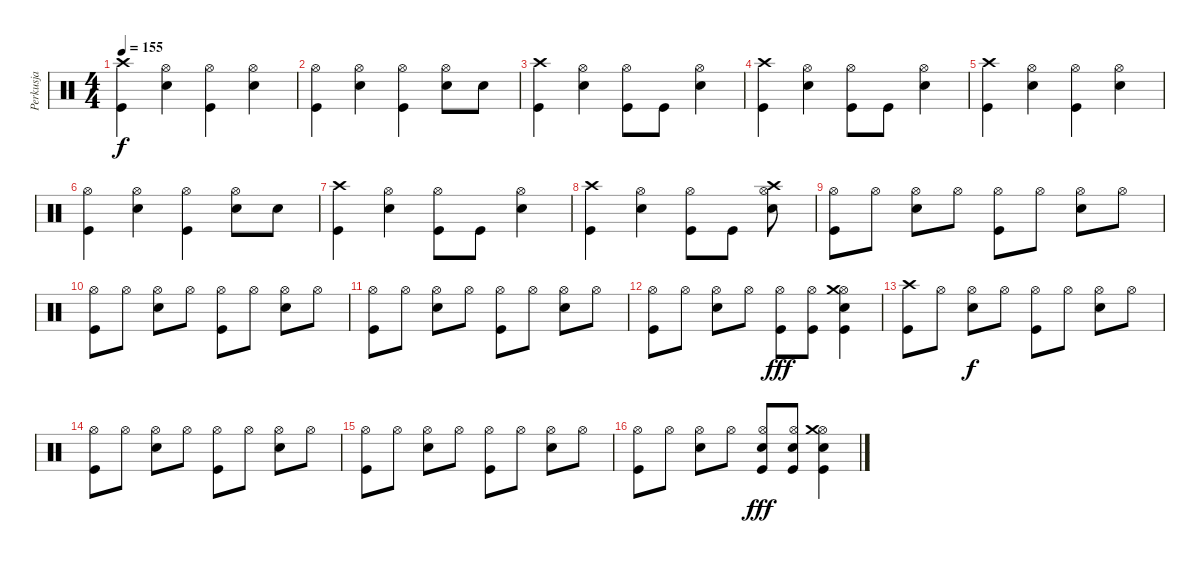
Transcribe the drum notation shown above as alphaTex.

\track ("Perkusja" "Perkusja") {instrument percussion}
\staff {score}
\articulation defaults
\ts (4 4)
\tempo 155
\clef neutral
\ks c
("Crash high (hit)" "Kick (hit)").4{dy f} ("Hi-Hat (open)" "Snare (hit) 2").4 ("Kick (hit)" "Hi-Hat (open)").4 ("Snare (hit) 2" "Hi-Hat (open)").4 |
("Kick (hit)" "Hi-Hat (open)").4 ("Snare (hit) 2" "Hi-Hat (open)").4 ("Kick (hit)" "Hi-Hat (open)").4 ("Snare (hit) 2" "Hi-Hat (open)").8 "Snare (hit) 2".8 |
("Crash high (hit)" "Kick (hit)").4 ("Snare (hit) 2" "Hi-Hat (open)").4 ("Kick (hit)" "Hi-Hat (open)").8 "Kick (hit)".8 ("Hi-Hat (open)" "Snare (hit) 2").4 |
("Crash high (hit)" "Kick (hit)").4 ("Hi-Hat (open)" "Snare (hit) 2").4 ("Kick (hit)" "Hi-Hat (open)").8 "Kick (hit)".8 ("Hi-Hat (open)" "Snare (hit) 2").4 |
("Crash high (hit)" "Kick (hit)").4 ("Hi-Hat (open)" "Snare (hit) 2").4 ("Kick (hit)" "Hi-Hat (open)").4 ("Snare (hit) 2" "Hi-Hat (open)").4 |
("Kick (hit)" "Hi-Hat (open)").4 ("Snare (hit) 2" "Hi-Hat (open)").4 ("Kick (hit)" "Hi-Hat (open)").4 ("Snare (hit) 2" "Hi-Hat (open)").8 "Snare (hit) 2".8 |
("Crash high (hit)" "Kick (hit)").4 ("Snare (hit) 2" "Hi-Hat (open)").4 ("Kick (hit)" "Hi-Hat (open)").8 "Kick (hit)".8 ("Hi-Hat (open)" "Snare (hit) 2").4 |
("Crash high (hit)" "Kick (hit)").4 ("Hi-Hat (open)" "Snare (hit) 2").4 ("Kick (hit)" "Hi-Hat (open)").8 "Kick (hit)".8 ("Hi-Hat (open)" "Snare (hit) 2" "Crash high (hit)").8 |
("Kick (hit)" "Hi-Hat (open)").8 "Hi-Hat (open)".8 ("Hi-Hat (open)" "Snare (hit) 2").8 "Hi-Hat (open)".8 ("Kick (hit)" "Hi-Hat (open)").8 "Hi-Hat (open)".8 ("Hi-Hat (open)" "Snare (hit) 2").8 "Hi-Hat (open)".8 |
("Kick (hit)" "Hi-Hat (open)").8 "Hi-Hat (open)".8 ("Hi-Hat (open)" "Snare (hit) 2").8 "Hi-Hat (open)".8 ("Kick (hit)" "Hi-Hat (open)").8 "Hi-Hat (open)".8 ("Hi-Hat (open)" "Snare (hit) 2").8 "Hi-Hat (open)".8 |
("Kick (hit)" "Hi-Hat (open)").8 "Hi-Hat (open)".8 ("Hi-Hat (open)" "Snare (hit) 2").8 "Hi-Hat (open)".8 ("Kick (hit)" "Hi-Hat (open)").8 "Hi-Hat (open)".8 ("Hi-Hat (open)" "Snare (hit) 2").8 "Hi-Hat (open)".8 |
("Kick (hit)" "Hi-Hat (open)").8 "Hi-Hat (open)".8 ("Hi-Hat (open)" "Snare (hit) 2").8 "Hi-Hat (open)".8 ("Kick (hit)" "Hi-Hat (open)").8{dy fff} ("Kick (hit)" "Hi-Hat (open)").8 ("Snare (hit) 2" "Hi-Hat (open)" "Kick (hit)" "Crash medium (hit)").4 |
("Kick (hit)" "Crash high (hit)").8 "Hi-Hat (open)".8 ("Hi-Hat (open)" "Snare (hit) 2").8{dy f} "Hi-Hat (open)".8 ("Kick (hit)" "Hi-Hat (open)").8 "Hi-Hat (open)".8 ("Hi-Hat (open)" "Snare (hit) 2").8 "Hi-Hat (open)".8 |
("Kick (hit)" "Hi-Hat (open)").8 "Hi-Hat (open)".8 ("Hi-Hat (open)" "Snare (hit) 2").8 "Hi-Hat (open)".8 ("Kick (hit)" "Hi-Hat (open)").8 "Hi-Hat (open)".8 ("Hi-Hat (open)" "Snare (hit) 2").8 "Hi-Hat (open)".8 |
("Kick (hit)" "Hi-Hat (open)").8 "Hi-Hat (open)".8 ("Hi-Hat (open)" "Snare (hit) 2").8 "Hi-Hat (open)".8 ("Kick (hit)" "Hi-Hat (open)").8 "Hi-Hat (open)".8 ("Hi-Hat (open)" "Snare (hit) 2").8 "Hi-Hat (open)".8 |
("Kick (hit)" "Hi-Hat (open)").8 "Hi-Hat (open)".8 ("Hi-Hat (open)" "Snare (hit) 2").8 "Hi-Hat (open)".8 ("Kick (hit)" "Hi-Hat (open)" "Snare (hit) 2").8{dy fff} ("Kick (hit)" "Hi-Hat (open)" "Snare (hit) 2").8 ("Snare (hit) 2" "Hi-Hat (open)" "Kick (hit)" "Crash medium (hit)").4
